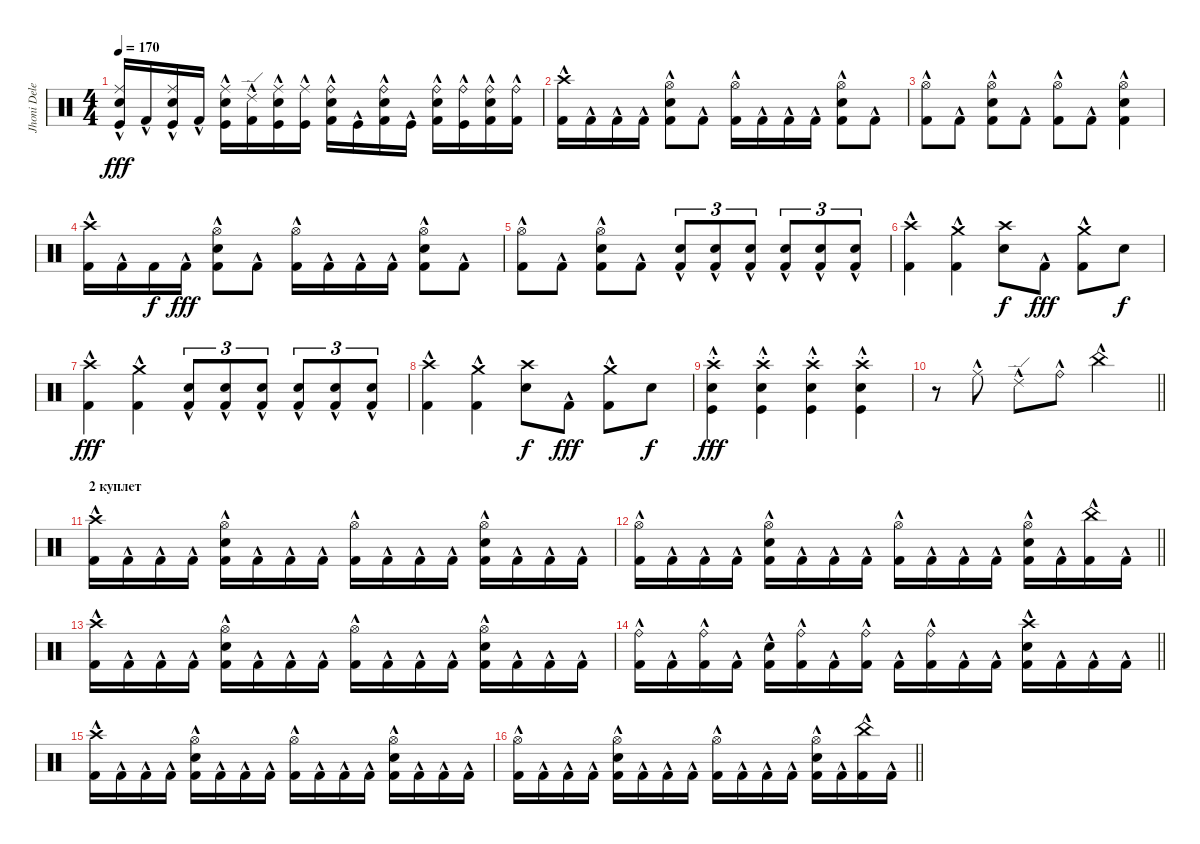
\track ("Jhoni Delenger" "Jhoni Dele") {instrument percussion}
\staff {score}
\articulation defaults
\ts (4 4)
\tempo 170
\clef neutral
\ks c
("Snare (hit) 2" "Ride (middle)"{hac} "Kick (hit)"{hac}).16{dy fff} "Kick (hit) 2"{hac}.16 ("Snare (hit) 2" "Ride (middle)"{hac} "Kick (hit)"{hac}).16 "Kick (hit) 2"{hac}.16 ("Snare (hit) 2" "Ride (middle)"{hac} "Kick (hit)"{hac}).16 ("Kick (hit) 2"{hac} "Ride (edge) 2"{hac}).16 ("Snare (hit) 2" "Ride (middle)"{hac} "Kick (hit)"{hac}).16 ("Ride (middle)"{hac} "Kick (hit)"{hac}).16 ("Kick (hit) 2"{hac} "Snare (hit) 2" "Ride (bell)"{hac}).16 "Kick (hit)"{hac}.16 ("Kick (hit) 2"{hac} "Snare (hit) 2" "Ride (bell)"{hac}).16 "Kick (hit)"{hac}.16 ("Kick (hit) 2"{hac} "Snare (hit) 2" "Ride (bell)"{hac}).16 ("Ride (bell)"{hac} "Kick (hit)"{hac}).16 ("Kick (hit) 2"{hac} "Snare (hit) 2" "Ride (bell)"{hac}).16 ("Kick (hit) 2"{hac} "Ride (bell)"{hac}).16 |
("Crash high (hit)" "Kick (hit) 2"{hac}).16 "Kick (hit) 2"{hac}.16 "Kick (hit) 2"{hac}.16 "Kick (hit) 2"{hac}.16 ("Hi-Hat (open)" "Snare (hit) 2" "Kick (hit) 2"{hac}).8 "Kick (hit) 2"{hac}.8 ("Hi-Hat (open)" "Kick (hit) 2"{hac}).16 "Kick (hit) 2"{hac}.16 "Kick (hit) 2"{hac}.16 "Kick (hit) 2"{hac}.16 ("Hi-Hat (open)" "Snare (hit) 2" "Kick (hit) 2"{hac}).8 "Kick (hit) 2"{hac}.8 |
("Hi-Hat (open)" "Kick (hit) 2"{hac}).8 "Kick (hit) 2"{hac}.8 ("Hi-Hat (open)" "Snare (hit) 2" "Kick (hit) 2"{hac}).8 "Kick (hit) 2"{hac}.8 ("Hi-Hat (open)" "Kick (hit) 2"{hac}).8 "Kick (hit) 2"{hac}.8 ("Hi-Hat (open)" "Snare (hit) 2" "Kick (hit) 2"{hac}).4 |
("Crash high (hit)" "Kick (hit) 2"{hac}).16 "Kick (hit) 2"{hac}.16 "Kick (hit) 2".16{dy f} "Kick (hit) 2"{hac}.16{dy fff} ("Hi-Hat (open)" "Snare (hit) 2" "Kick (hit) 2"{hac}).8 "Kick (hit) 2"{hac}.8 ("Hi-Hat (open)" "Kick (hit) 2"{hac}).16 "Kick (hit) 2"{hac}.16 "Kick (hit) 2"{hac}.16 "Kick (hit) 2"{hac}.16 ("Hi-Hat (open)" "Snare (hit) 2" "Kick (hit) 2"{hac}).8 "Kick (hit) 2"{hac}.8 |
("Hi-Hat (open)" "Kick (hit) 2"{hac}).8 "Kick (hit) 2"{hac}.8 ("Hi-Hat (open)" "Snare (hit) 2" "Kick (hit) 2"{hac}).8 "Kick (hit) 2"{hac}.8 ("Snare (hit) 2" "Kick (hit) 2"{hac}).8{tu (3 2)} ("Snare (hit) 2" "Kick (hit) 2"{hac}).8{tu (3 2)} ("Snare (hit) 2" "Kick (hit) 2"{hac}).8{tu (3 2)} ("Snare (hit) 2" "Kick (hit) 2"{hac}).8{tu (3 2)} ("Snare (hit) 2" "Kick (hit) 2"{hac}).8{tu (3 2)} ("Snare (hit) 2" "Kick (hit) 2"{hac}).8{tu (3 2)} |
("Kick (hit) 2"{hac} "Crash high (hit)").4 ("Kick (hit) 2"{hac} "Crash medium (hit)").4 ("Snare (hit) 2" "Crash high (hit)").8{dy f} "Kick (hit) 2"{hac}.8{dy fff} ("Kick (hit) 2"{hac} "Crash medium (hit)").8 "Snare (hit) 2".8{dy f} |
("Kick (hit) 2"{hac} "Crash high (hit)").4{dy fff} ("Kick (hit) 2"{hac} "Crash medium (hit)").4 ("Snare (hit) 2" "Kick (hit) 2"{hac}).8{tu (3 2)} ("Snare (hit) 2" "Kick (hit) 2"{hac}).8{tu (3 2)} ("Snare (hit) 2" "Kick (hit) 2"{hac}).8{tu (3 2)} ("Snare (hit) 2" "Kick (hit) 2"{hac}).8{tu (3 2)} ("Snare (hit) 2" "Kick (hit) 2"{hac}).8{tu (3 2)} ("Snare (hit) 2" "Kick (hit) 2"{hac}).8{tu (3 2)} |
("Kick (hit) 2"{hac} "Crash high (hit)").4 ("Kick (hit) 2"{hac} "Crash medium (hit)").4 ("Snare (hit) 2" "Crash high (hit)").8{dy f} "Kick (hit) 2"{hac}.8{dy fff} ("Kick (hit) 2"{hac} "Crash medium (hit)").8 "Snare (hit) 2".8{dy f} |
("Snare (hit) 2"{st} "Crash high (hit)" "Kick (hit)"{hac}).4{dy fff} ("Snare (hit) 2"{st} "Crash high (hit)" "Kick (hit)"{hac}).4 ("Snare (hit) 2"{st} "Crash high (hit)" "Kick (hit)"{hac}).4 ("Snare (hit) 2"{st} "Crash high (hit)" "Kick (hit)"{hac}).4 |
\barLineRight lightlight
r.8 "Ride (middle)"{hac}.8 "Ride (edge) 2"{hac}.8 "Ride (bell)"{hac}.8 "China (hit)"{hac}.2 |
\section ("" "2 куплет")
("Crash high (hit)" "Kick (hit) 2"{hac}).16 "Kick (hit) 2"{hac}.16 "Kick (hit) 2"{hac}.16 "Kick (hit) 2"{hac}.16 ("Hi-Hat (open)" "Snare (hit) 2" "Kick (hit) 2"{hac}).16 "Kick (hit) 2"{hac}.16 "Kick (hit) 2"{hac}.16 "Kick (hit) 2"{hac}.16 ("Hi-Hat (open)" "Kick (hit) 2"{hac}).16 "Kick (hit) 2"{hac}.16 "Kick (hit) 2"{hac}.16 "Kick (hit) 2"{hac}.16 ("Hi-Hat (open)" "Snare (hit) 2" "Kick (hit) 2"{hac}).16 "Kick (hit) 2"{hac}.16 "Kick (hit) 2"{hac}.16 "Kick (hit) 2"{hac}.16 |
\barLineRight lightlight
("Hi-Hat (open)" "Kick (hit) 2"{hac}).16 "Kick (hit) 2"{hac}.16 "Kick (hit) 2"{hac}.16 "Kick (hit) 2"{hac}.16 ("Hi-Hat (open)" "Snare (hit) 2" "Kick (hit) 2"{hac}).16 "Kick (hit) 2"{hac}.16 "Kick (hit) 2"{hac}.16 "Kick (hit) 2"{hac}.16 ("Hi-Hat (open)" "Kick (hit) 2"{hac}).16 "Kick (hit) 2"{hac}.16 "Kick (hit) 2"{hac}.16 "Kick (hit) 2"{hac}.16 ("Hi-Hat (open)" "Snare (hit) 2" "Kick (hit) 2"{hac}).16 "Kick (hit) 2"{hac}.16 ("China (hit)" "Kick (hit) 2"{hac}).16 "Kick (hit) 2"{hac}.16 |
("Crash high (hit)" "Kick (hit) 2"{hac}).16 "Kick (hit) 2"{hac}.16 "Kick (hit) 2"{hac}.16 "Kick (hit) 2"{hac}.16 ("Hi-Hat (open)" "Snare (hit) 2" "Kick (hit) 2"{hac}).16 "Kick (hit) 2"{hac}.16 "Kick (hit) 2"{hac}.16 "Kick (hit) 2"{hac}.16 ("Hi-Hat (open)" "Kick (hit) 2"{hac}).16 "Kick (hit) 2"{hac}.16 "Kick (hit) 2"{hac}.16 "Kick (hit) 2"{hac}.16 ("Hi-Hat (open)" "Snare (hit) 2" "Kick (hit) 2"{hac}).16 "Kick (hit) 2"{hac}.16 "Kick (hit) 2"{hac}.16 "Kick (hit) 2"{hac}.16 |
\barLineRight lightlight
("Kick (hit) 2"{hac} "Ride (bell)"{hac}).16 "Kick (hit) 2"{hac}.16 ("Kick (hit) 2"{hac} "Ride (bell)"{hac}).16 "Kick (hit) 2"{hac}.16 ("Snare (hit) 2" "Kick (hit) 2"{hac}).16 ("Ride (bell)"{hac} "Kick (hit) 2"{hac}).16 "Kick (hit) 2"{hac}.16 ("Ride (bell)"{hac} "Kick (hit) 2"{hac}).16 "Kick (hit) 2"{hac}.16 ("Ride (bell)"{hac} "Kick (hit) 2"{hac}).16 "Kick (hit) 2"{hac}.16 "Kick (hit) 2"{hac}.16 ("Crash high (hit)" "Snare (hit) 2" "Kick (hit) 2"{hac}).16 "Kick (hit) 2"{hac}.16 "Kick (hit) 2"{hac}.16 "Kick (hit) 2"{hac}.16 |
("Crash high (hit)" "Kick (hit) 2"{hac}).16 "Kick (hit) 2"{hac}.16 "Kick (hit) 2"{hac}.16 "Kick (hit) 2"{hac}.16 ("Hi-Hat (open)" "Snare (hit) 2" "Kick (hit) 2"{hac}).16 "Kick (hit) 2"{hac}.16 "Kick (hit) 2"{hac}.16 "Kick (hit) 2"{hac}.16 ("Hi-Hat (open)" "Kick (hit) 2"{hac}).16 "Kick (hit) 2"{hac}.16 "Kick (hit) 2"{hac}.16 "Kick (hit) 2"{hac}.16 ("Hi-Hat (open)" "Snare (hit) 2" "Kick (hit) 2"{hac}).16 "Kick (hit) 2"{hac}.16 "Kick (hit) 2"{hac}.16 "Kick (hit) 2"{hac}.16 |
\barLineRight lightlight
("Hi-Hat (open)" "Kick (hit) 2"{hac}).16 "Kick (hit) 2"{hac}.16 "Kick (hit) 2"{hac}.16 "Kick (hit) 2"{hac}.16 ("Hi-Hat (open)" "Snare (hit) 2" "Kick (hit) 2"{hac}).16 "Kick (hit) 2"{hac}.16 "Kick (hit) 2"{hac}.16 "Kick (hit) 2"{hac}.16 ("Hi-Hat (open)" "Kick (hit) 2"{hac}).16 "Kick (hit) 2"{hac}.16 "Kick (hit) 2"{hac}.16 "Kick (hit) 2"{hac}.16 ("Hi-Hat (open)" "Snare (hit) 2" "Kick (hit) 2"{hac}).16 "Kick (hit) 2"{hac}.16 ("China (hit)" "Kick (hit) 2"{hac}).16 "Kick (hit) 2"{hac}.16
